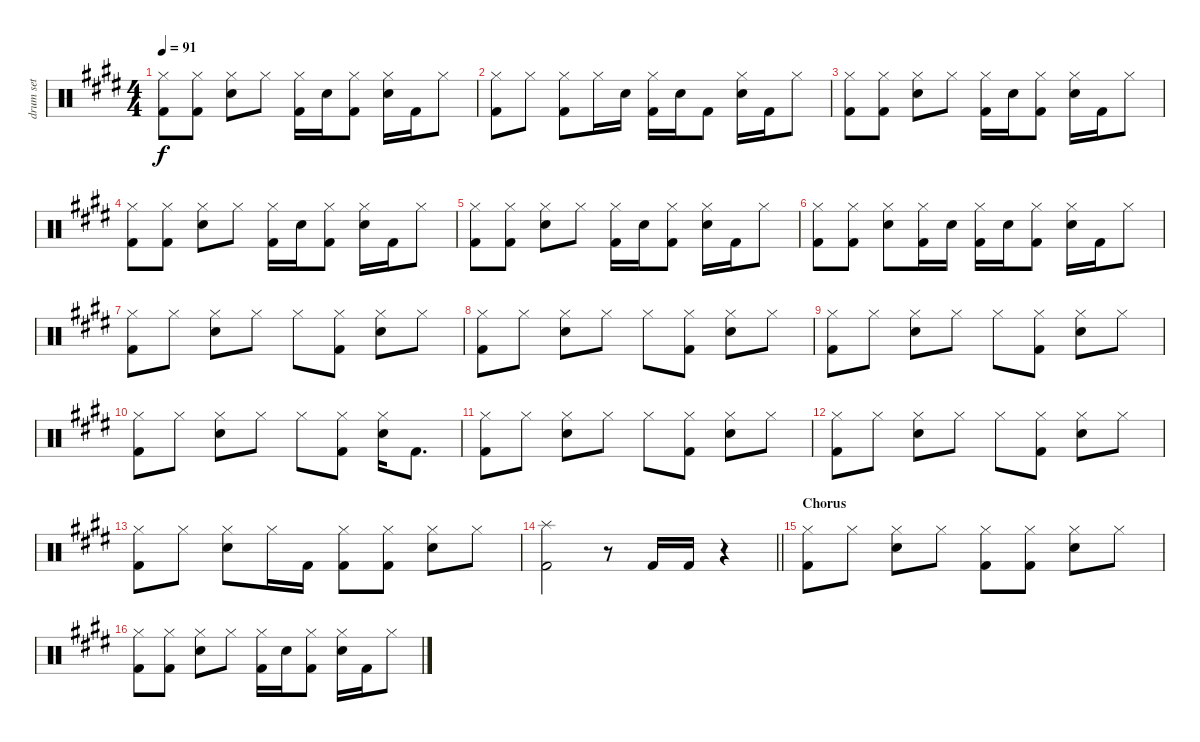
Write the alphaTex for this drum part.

\track ("drum set" "drum set") {instrument percussion}
\staff {score}
\articulation defaults
\ts (4 4)
\tempo 91
\clef neutral
\ks c#minor
("Hi-Hat (closed)" "Kick (hit) 2").8{dy f} ("Hi-Hat (closed)" "Kick (hit) 2").8 ("Hi-Hat (closed)" "Hand Clap (hit)").8 "Hi-Hat (closed)".8 ("Hi-Hat (closed)" "Kick (hit) 2").16 "Hand Clap (hit)".16 ("Hi-Hat (closed)" "Kick (hit) 2").8 ("Hi-Hat (closed)" "Hand Clap (hit)").16 "Kick (hit) 2".16 "Hi-Hat (closed)".8 |
("Hi-Hat (closed)" "Kick (hit) 2").8 "Hi-Hat (closed)".8 ("Hi-Hat (closed)" "Kick (hit) 2").8 "Hi-Hat (closed)".16 "Hand Clap (hit)".16 ("Hi-Hat (closed)" "Kick (hit) 2").16 "Hand Clap (hit)".16 "Kick (hit) 2".8 ("Hi-Hat (closed)" "Hand Clap (hit)").16 "Kick (hit) 2".16 "Hi-Hat (closed)".8 |
\ks e
("Hi-Hat (closed)" "Kick (hit) 2").8 ("Hi-Hat (closed)" "Kick (hit) 2").8 ("Hi-Hat (closed)" "Hand Clap (hit)").8 "Hi-Hat (closed)".8 ("Hi-Hat (closed)" "Kick (hit) 2").16 "Hand Clap (hit)".16 ("Hi-Hat (closed)" "Kick (hit) 2").8 ("Hi-Hat (closed)" "Hand Clap (hit)").16 "Kick (hit) 2".16 "Hi-Hat (closed)".8 |
\ks c#minor
("Hi-Hat (closed)" "Kick (hit) 2").8 ("Hi-Hat (closed)" "Kick (hit) 2").8 ("Hi-Hat (closed)" "Hand Clap (hit)").8 "Hi-Hat (closed)".8 ("Hi-Hat (closed)" "Kick (hit) 2").16 "Hand Clap (hit)".16 ("Hi-Hat (closed)" "Kick (hit) 2").8 ("Hi-Hat (closed)" "Hand Clap (hit)").16 "Kick (hit) 2".16 "Hi-Hat (closed)".8 |
("Hi-Hat (closed)" "Kick (hit) 2").8 ("Hi-Hat (closed)" "Kick (hit) 2").8 ("Hi-Hat (closed)" "Hand Clap (hit)").8 "Hi-Hat (closed)".8 ("Hi-Hat (closed)" "Kick (hit) 2").16 "Hand Clap (hit)".16 ("Hi-Hat (closed)" "Kick (hit) 2").8 ("Hi-Hat (closed)" "Hand Clap (hit)").16 "Kick (hit) 2".16 "Hi-Hat (closed)".8 |
("Hi-Hat (closed)" "Kick (hit) 2").8 ("Hi-Hat (closed)" "Kick (hit) 2").8 ("Hi-Hat (closed)" "Hand Clap (hit)").8 ("Hi-Hat (closed)" "Kick (hit) 2").16 "Hand Clap (hit)".16 ("Hi-Hat (closed)" "Kick (hit) 2").16 "Hand Clap (hit)".16 ("Hi-Hat (closed)" "Kick (hit) 2").8 ("Hi-Hat (closed)" "Hand Clap (hit)").16 "Kick (hit) 2".16 "Hi-Hat (closed)".8 |
\ks e
("Hi-Hat (closed)" "Kick (hit) 2").8 "Hi-Hat (closed)".8 ("Hi-Hat (closed)" "Hand Clap (hit)").8 "Hi-Hat (closed)".8 "Hi-Hat (closed)".8 ("Hi-Hat (closed)" "Kick (hit) 2").8 ("Hi-Hat (closed)" "Hand Clap (hit)").8 "Hi-Hat (closed)".8 |
\ks c#minor
("Hi-Hat (closed)" "Kick (hit) 2").8 "Hi-Hat (closed)".8 ("Hi-Hat (closed)" "Hand Clap (hit)").8 "Hi-Hat (closed)".8 "Hi-Hat (closed)".8 ("Hi-Hat (closed)" "Kick (hit) 2").8 ("Hi-Hat (closed)" "Hand Clap (hit)").8 "Hi-Hat (closed)".8 |
("Hi-Hat (closed)" "Kick (hit) 2").8 "Hi-Hat (closed)".8 ("Hi-Hat (closed)" "Hand Clap (hit)").8 "Hi-Hat (closed)".8 "Hi-Hat (closed)".8 ("Hi-Hat (closed)" "Kick (hit) 2").8 ("Hi-Hat (closed)" "Hand Clap (hit)").8 "Hi-Hat (closed)".8 |
("Hi-Hat (closed)" "Kick (hit) 2").8 "Hi-Hat (closed)".8 ("Hi-Hat (closed)" "Hand Clap (hit)").8 "Hi-Hat (closed)".8 "Hi-Hat (closed)".8 ("Hi-Hat (closed)" "Kick (hit) 2").8 ("Hi-Hat (closed)" "Hand Clap (hit)").16 "Kick (hit) 2".8{d} |
("Hi-Hat (closed)" "Kick (hit) 2").8 "Hi-Hat (closed)".8 ("Hi-Hat (closed)" "Hand Clap (hit)").8 "Hi-Hat (closed)".8 "Hi-Hat (closed)".8 ("Hi-Hat (closed)" "Kick (hit) 2").8 ("Hi-Hat (closed)" "Hand Clap (hit)").8 "Hi-Hat (closed)".8 |
("Hi-Hat (closed)" "Kick (hit) 2").8 "Hi-Hat (closed)".8 ("Hi-Hat (closed)" "Hand Clap (hit)").8 "Hi-Hat (closed)".8 "Hi-Hat (closed)".8 ("Hi-Hat (closed)" "Kick (hit) 2").8 ("Hi-Hat (closed)" "Hand Clap (hit)").8 "Hi-Hat (closed)".8 |
("Hi-Hat (closed)" "Kick (hit) 2").8 "Hi-Hat (closed)".8 ("Hi-Hat (closed)" "Hand Clap (hit)").8 "Hi-Hat (closed)".16 "Kick (hit) 2".16 ("Hi-Hat (closed)" "Kick (hit) 2").8 ("Hi-Hat (closed)" "Kick (hit) 2").8 ("Hi-Hat (closed)" "Hand Clap (hit)").8 "Hi-Hat (closed)".8 |
\barLineRight lightlight
\ks e
("Splash (hit)" "Kick (hit) 2").2 r.8 "Kick (hit) 2".16 "Kick (hit) 2".16 r.4 |
\section ("" "Chorus")
("Hi-Hat (closed)" "Kick (hit) 2").8 "Hi-Hat (closed)".8 ("Hi-Hat (closed)" "Hand Clap (hit)").8 "Hi-Hat (closed)".8 ("Hi-Hat (closed)" "Kick (hit) 2").8 ("Hi-Hat (closed)" "Kick (hit) 2").8 ("Hi-Hat (closed)" "Hand Clap (hit)").8 "Hi-Hat (closed)".8 |
\ks c#minor
("Hi-Hat (closed)" "Kick (hit) 2").8 ("Hi-Hat (closed)" "Kick (hit) 2").8 ("Hi-Hat (closed)" "Hand Clap (hit)").8 "Hi-Hat (closed)".8 ("Hi-Hat (closed)" "Kick (hit) 2").16 "Hand Clap (hit)".16 ("Hi-Hat (closed)" "Kick (hit) 2").8 ("Hi-Hat (closed)" "Hand Clap (hit)").16 "Kick (hit) 2".16 "Hi-Hat (closed)".8
